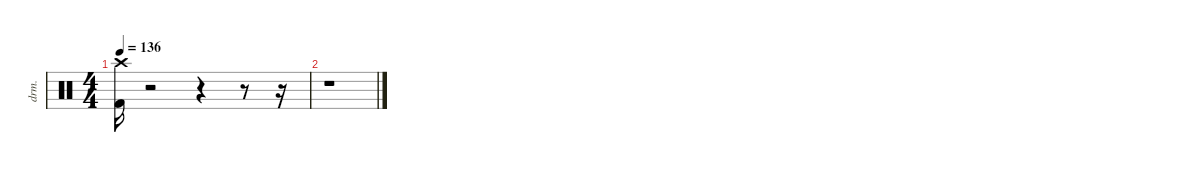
\defaultSystemsLayout 4
\hideDynamics
\bracketExtendMode nobrackets
\otherSystemsTrackNameOrientation horizontal
\track ("Drums" "drm.") {instrument percussion}
\staff {score}
\articulation defaults
\ts (4 4)
\tempo 136
\clef neutral
\ks c
("Kick (hit) 2" "Crash high (hit)").16{dy f} r.2 r.4 r.8 r.16 |
r.1
